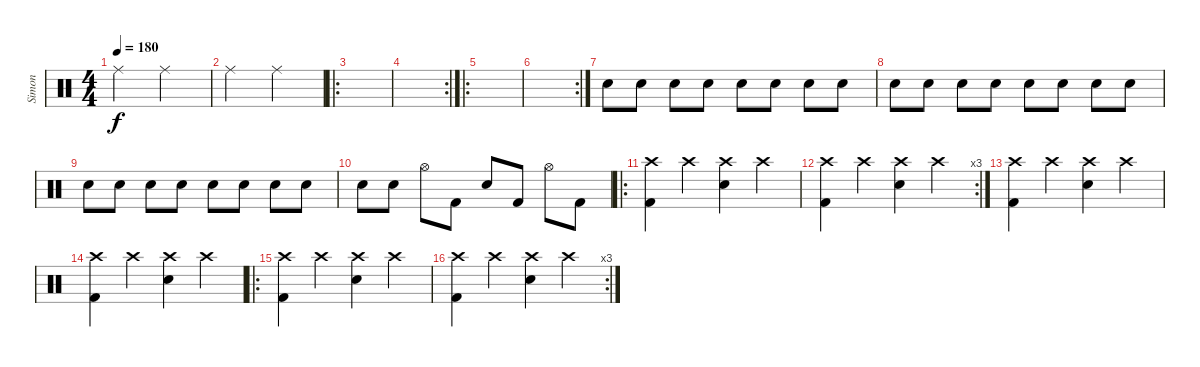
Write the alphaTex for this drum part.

\track ("Simon" "Simon") {instrument percussion}
\staff {score}
\articulation defaults
\ts (4 4)
\tempo 180
\clef neutral
\ks c "Ride (middle)".2{dy f} "Ride (middle)".2
|
"Ride (middle)".2 "Ride (middle)".2 |
\ro
|
\rc 2
|
\ro
|
\rc 2
|
"Snare (hit) 2".8{volume 13} "Snare (hit) 2".8 "Snare (hit) 2".8 "Snare (hit) 2".8 "Snare (hit) 2".8 "Snare (hit) 2".8 "Snare (hit) 2".8 "Snare (hit) 2".8 |
"Snare (hit) 2".8 "Snare (hit) 2".8 "Snare (hit) 2".8 "Snare (hit) 2".8 "Snare (hit) 2".8 "Snare (hit) 2".8 "Snare (hit) 2".8 "Snare (hit) 2".8 |
"Snare (hit) 2".8 "Snare (hit) 2".8 "Snare (hit) 2".8 "Snare (hit) 2".8 "Snare (hit) 2".8 "Snare (hit) 2".8 "Snare (hit) 2".8 "Snare (hit) 2".8 |
"Snare (hit) 2".8 "Snare (hit) 2".8 "Hi-Hat (open)".8 "Kick (hit) 2".8 "Snare (hit) 2".8 "Kick (hit) 2".8 "Hi-Hat (open)".8 "Kick (hit) 2".8 |
\ro
("Crash high (hit)" "Kick (hit) 2").4 "Crash high (hit)".4 ("Crash high (hit)" "Snare (hit) 2").4 "Crash high (hit)".4 |
\rc 3
("Crash high (hit)" "Kick (hit) 2").4 "Crash high (hit)".4 ("Crash high (hit)" "Snare (hit) 2").4 "Crash high (hit)".4 |
("Crash high (hit)" "Kick (hit) 2").4 "Crash high (hit)".4 ("Crash high (hit)" "Snare (hit) 2").4 "Crash high (hit)".4 |
("Crash high (hit)" "Kick (hit) 2").4 "Crash high (hit)".4 ("Crash high (hit)" "Snare (hit) 2").4 "Crash high (hit)".4 |
\ro
("Crash high (hit)" "Kick (hit) 2").4 "Crash high (hit)".4 ("Crash high (hit)" "Snare (hit) 2").4 "Crash high (hit)".4 |
\rc 3
("Crash high (hit)" "Kick (hit) 2").4 "Crash high (hit)".4 ("Crash high (hit)" "Snare (hit) 2").4 "Crash high (hit)".4
